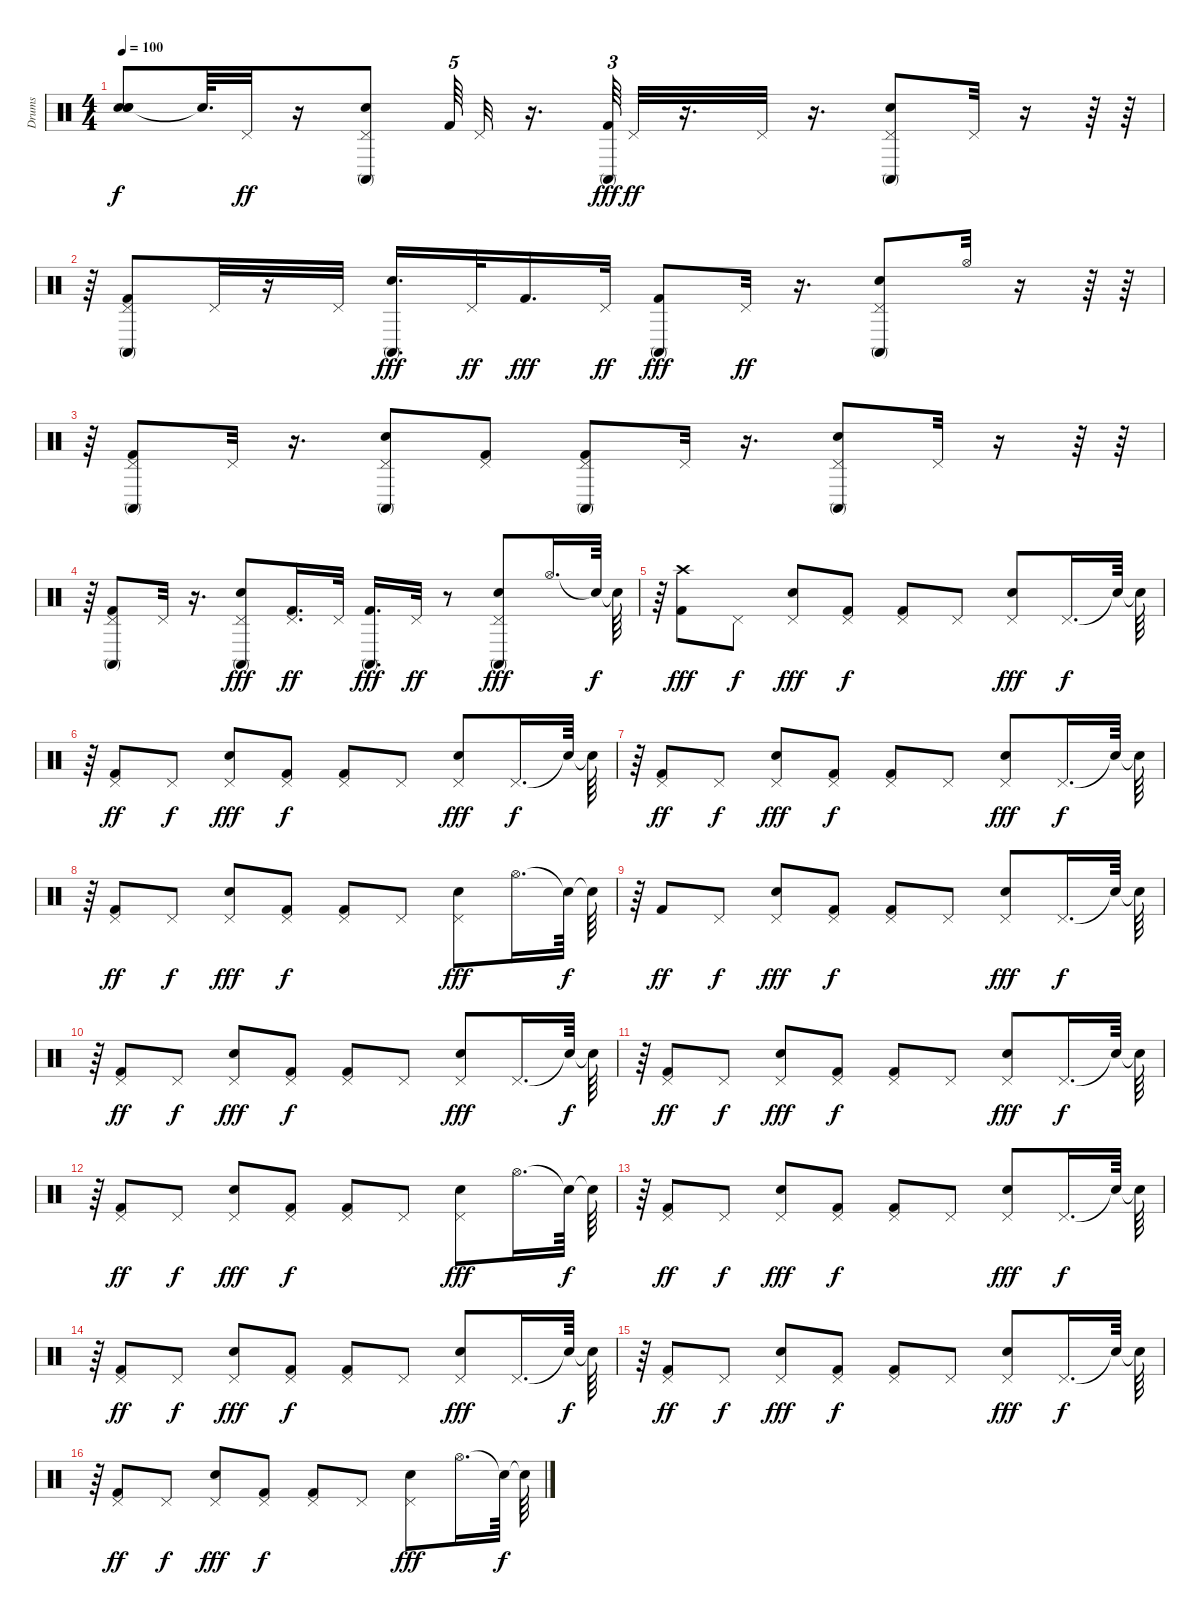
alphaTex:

\track ("Drums" "Drums") {instrument percussion}
\staff {score}
\articulation defaults
\ts (4 4)
\tempo 100
\clef neutral
\ks c
("Snare (hit)"{t} "Snare (hit)"{t} "Snare (hit)"{t}).8{dy f} "Snare (hit)"{t}.64{d} "Pedal Hi-Hat (hit)".32{dy ff} r.16 ("Snare (hit) 2" "Conga high (mute)" "Pedal Hi-Hat (hit)").8 "Kick (hit) 2".64{tu (5 4)} "Pedal Hi-Hat (hit)".32 r.16{d} ("Kick (hit) 2" "Conga high (mute)").64{tu (3 2) dy fff} "Pedal Hi-Hat (hit)".32{dy ff} r.16{d} "Pedal Hi-Hat (hit)".32 r.16{d} ("Snare (hit) 2" "Conga high (mute)" "Pedal Hi-Hat (hit)").8 "Pedal Hi-Hat (hit)".32 r.16 r.64 r.64 |
r.64 ("Kick (hit) 2" "Conga high (mute)" "Pedal Hi-Hat (hit)").8 "Pedal Hi-Hat (hit)".32 r.16 "Pedal Hi-Hat (hit)".32 ("Snare (hit) 2" "Conga high (mute)").16{d dy fff} "Pedal Hi-Hat (hit)".32{dy ff} "Kick (hit) 2".16{d dy fff} "Pedal Hi-Hat (hit)".32{dy ff} ("Kick (hit) 2" "Conga high (mute)").8{dy fff} "Pedal Hi-Hat (hit)".32{dy ff} r.16{d} ("Snare (hit) 2" "Conga high (mute)" "Pedal Hi-Hat (hit)").8 "Hi-Hat (open)".32 r.16 r.64 r.64 |
r.64 ("Kick (hit) 2" "Conga high (mute)" "Pedal Hi-Hat (hit)").8 "Pedal Hi-Hat (hit)".32 r.16{d} ("Snare (hit) 2" "Conga high (mute)" "Pedal Hi-Hat (hit)").8 ("Kick (hit) 2" "Pedal Hi-Hat (hit)").8 ("Kick (hit) 2" "Conga high (mute)" "Pedal Hi-Hat (hit)").8 "Pedal Hi-Hat (hit)".32 r.16{d} ("Snare (hit) 2" "Conga high (mute)" "Pedal Hi-Hat (hit)").8 "Pedal Hi-Hat (hit)".32 r.16 r.64 r.64 |
r.64 ("Kick (hit) 2" "Conga high (mute)" "Pedal Hi-Hat (hit)").8 "Pedal Hi-Hat (hit)".32 r.16{d} ("Pedal Hi-Hat (hit)" "Snare (hit) 2" "Conga high (mute)").8{dy fff} ("Kick (hit) 2" "Pedal Hi-Hat (hit)").16{d dy ff} "Pedal Hi-Hat (hit)".32 ("Kick (hit) 2" "Conga high (mute)").16{d dy fff} "Pedal Hi-Hat (hit)".32{dy ff} r.8 ("Pedal Hi-Hat (hit)" "Snare (hit) 2" "Conga high (mute)").8{dy fff} "Hi-Hat (open)".16{d} "Snare (hit)"{t}.64{dy f} "Snare (hit)"{t}.64 |
r.64 ("Kick (hit) 2" "Crash high (hit)").8{dy fff} "Pedal Hi-Hat (hit)".8{dy f} ("Snare (hit) 2" "Pedal Hi-Hat (hit)").8{dy fff} ("Kick (hit) 2" "Pedal Hi-Hat (hit)").8{dy f} ("Kick (hit) 2" "Pedal Hi-Hat (hit)").8 "Pedal Hi-Hat (hit)".8 ("Snare (hit) 2" "Pedal Hi-Hat (hit)").8{dy fff} "Pedal Hi-Hat (hit)".16{d dy f} "Snare (hit)"{t}.64 "Snare (hit)"{t}.64 |
r.64 ("Pedal Hi-Hat (hit)" "Kick (hit) 2").8{dy ff} "Pedal Hi-Hat (hit)".8{dy f} ("Pedal Hi-Hat (hit)" "Snare (hit) 2").8{dy fff} ("Kick (hit) 2" "Pedal Hi-Hat (hit)").8{dy f} ("Pedal Hi-Hat (hit)" "Kick (hit) 2").8 "Pedal Hi-Hat (hit)".8 ("Pedal Hi-Hat (hit)" "Snare (hit) 2").8{dy fff} "Pedal Hi-Hat (hit)".16{d dy f} "Snare (hit)"{t}.64 "Snare (hit)"{t}.64 |
r.64 ("Pedal Hi-Hat (hit)" "Kick (hit) 2").8{dy ff} "Pedal Hi-Hat (hit)".8{dy f} ("Snare (hit) 2" "Pedal Hi-Hat (hit)").8{dy fff} ("Kick (hit) 2" "Pedal Hi-Hat (hit)").8{dy f} ("Kick (hit) 2" "Pedal Hi-Hat (hit)").8 "Pedal Hi-Hat (hit)".8 ("Snare (hit) 2" "Pedal Hi-Hat (hit)").8{dy fff} "Pedal Hi-Hat (hit)".16{d dy f} "Snare (hit)"{t}.64 "Snare (hit)"{t}.64 |
r.64 ("Pedal Hi-Hat (hit)" "Kick (hit) 2").8{dy ff} "Pedal Hi-Hat (hit)".8{dy f} ("Pedal Hi-Hat (hit)" "Snare (hit) 2").8{dy fff} ("Kick (hit) 2" "Pedal Hi-Hat (hit)").8{dy f} ("Pedal Hi-Hat (hit)" "Kick (hit) 2").8 "Pedal Hi-Hat (hit)".8 ("Pedal Hi-Hat (hit)" "Snare (hit) 2").8{dy fff} "Hi-Hat (open)".16{d} "Snare (hit)"{t}.64{dy f} "Snare (hit)"{t}.64 |
r.64 "Kick (hit) 2".8{dy ff} "Pedal Hi-Hat (hit)".8{dy f} ("Snare (hit) 2" "Pedal Hi-Hat (hit)").8{dy fff} ("Kick (hit) 2" "Pedal Hi-Hat (hit)").8{dy f} ("Kick (hit) 2" "Pedal Hi-Hat (hit)").8 "Pedal Hi-Hat (hit)".8 ("Snare (hit) 2" "Pedal Hi-Hat (hit)").8{dy fff} "Pedal Hi-Hat (hit)".16{d dy f} "Snare (hit)"{t}.64 "Snare (hit)"{t}.64 |
r.64 ("Pedal Hi-Hat (hit)" "Kick (hit) 2").8{dy ff} "Pedal Hi-Hat (hit)".8{dy f} ("Pedal Hi-Hat (hit)" "Snare (hit) 2").8{dy fff} ("Kick (hit) 2" "Pedal Hi-Hat (hit)").8{dy f} ("Pedal Hi-Hat (hit)" "Kick (hit) 2").8 "Pedal Hi-Hat (hit)".8 ("Pedal Hi-Hat (hit)" "Snare (hit) 2").8{dy fff} "Pedal Hi-Hat (hit)".16{d} "Snare (hit)"{t}.64{dy f} "Snare (hit)"{t}.64 |
r.64 ("Pedal Hi-Hat (hit)" "Kick (hit) 2").8{dy ff} "Pedal Hi-Hat (hit)".8{dy f} ("Snare (hit) 2" "Pedal Hi-Hat (hit)").8{dy fff} ("Kick (hit) 2" "Pedal Hi-Hat (hit)").8{dy f} ("Kick (hit) 2" "Pedal Hi-Hat (hit)").8 "Pedal Hi-Hat (hit)".8 ("Snare (hit) 2" "Pedal Hi-Hat (hit)").8{dy fff} "Pedal Hi-Hat (hit)".16{d dy f} "Snare (hit)"{t}.64 "Snare (hit)"{t}.64 |
r.64 ("Pedal Hi-Hat (hit)" "Kick (hit) 2").8{dy ff} "Pedal Hi-Hat (hit)".8{dy f} ("Pedal Hi-Hat (hit)" "Snare (hit) 2").8{dy fff} ("Kick (hit) 2" "Pedal Hi-Hat (hit)").8{dy f} ("Pedal Hi-Hat (hit)" "Kick (hit) 2").8 "Pedal Hi-Hat (hit)".8 ("Pedal Hi-Hat (hit)" "Snare (hit) 2").8{dy fff} "Hi-Hat (open)".16{d} "Snare (hit)"{t}.64{dy f} "Snare (hit)"{t}.64 |
r.64 ("Pedal Hi-Hat (hit)" "Kick (hit) 2").8{dy ff} "Pedal Hi-Hat (hit)".8{dy f} ("Snare (hit) 2" "Pedal Hi-Hat (hit)").8{dy fff} ("Kick (hit) 2" "Pedal Hi-Hat (hit)").8{dy f} ("Kick (hit) 2" "Pedal Hi-Hat (hit)").8 "Pedal Hi-Hat (hit)".8 ("Snare (hit) 2" "Pedal Hi-Hat (hit)").8{dy fff} "Pedal Hi-Hat (hit)".16{d dy f} "Snare (hit)"{t}.64 "Snare (hit)"{t}.64 |
r.64 ("Pedal Hi-Hat (hit)" "Kick (hit) 2").8{dy ff} "Pedal Hi-Hat (hit)".8{dy f} ("Pedal Hi-Hat (hit)" "Snare (hit) 2").8{dy fff} ("Kick (hit) 2" "Pedal Hi-Hat (hit)").8{dy f} ("Pedal Hi-Hat (hit)" "Kick (hit) 2").8 "Pedal Hi-Hat (hit)".8 ("Pedal Hi-Hat (hit)" "Snare (hit) 2").8{dy fff} "Pedal Hi-Hat (hit)".16{d} "Snare (hit)"{t}.64{dy f} "Snare (hit)"{t}.64 |
r.64 ("Pedal Hi-Hat (hit)" "Kick (hit) 2").8{dy ff} "Pedal Hi-Hat (hit)".8{dy f} ("Snare (hit) 2" "Pedal Hi-Hat (hit)").8{dy fff} ("Kick (hit) 2" "Pedal Hi-Hat (hit)").8{dy f} ("Kick (hit) 2" "Pedal Hi-Hat (hit)").8 "Pedal Hi-Hat (hit)".8 ("Snare (hit) 2" "Pedal Hi-Hat (hit)").8{dy fff} "Pedal Hi-Hat (hit)".16{d dy f} "Snare (hit)"{t}.64 "Snare (hit)"{t}.64 |
r.64 ("Pedal Hi-Hat (hit)" "Kick (hit) 2").8{dy ff} "Pedal Hi-Hat (hit)".8{dy f} ("Pedal Hi-Hat (hit)" "Snare (hit) 2").8{dy fff} ("Kick (hit) 2" "Pedal Hi-Hat (hit)").8{dy f} ("Pedal Hi-Hat (hit)" "Kick (hit) 2").8 "Pedal Hi-Hat (hit)".8 ("Pedal Hi-Hat (hit)" "Snare (hit) 2").8{dy fff} "Hi-Hat (open)".16{d} "Snare (hit)"{t}.64{dy f} "Snare (hit)"{t}.64
